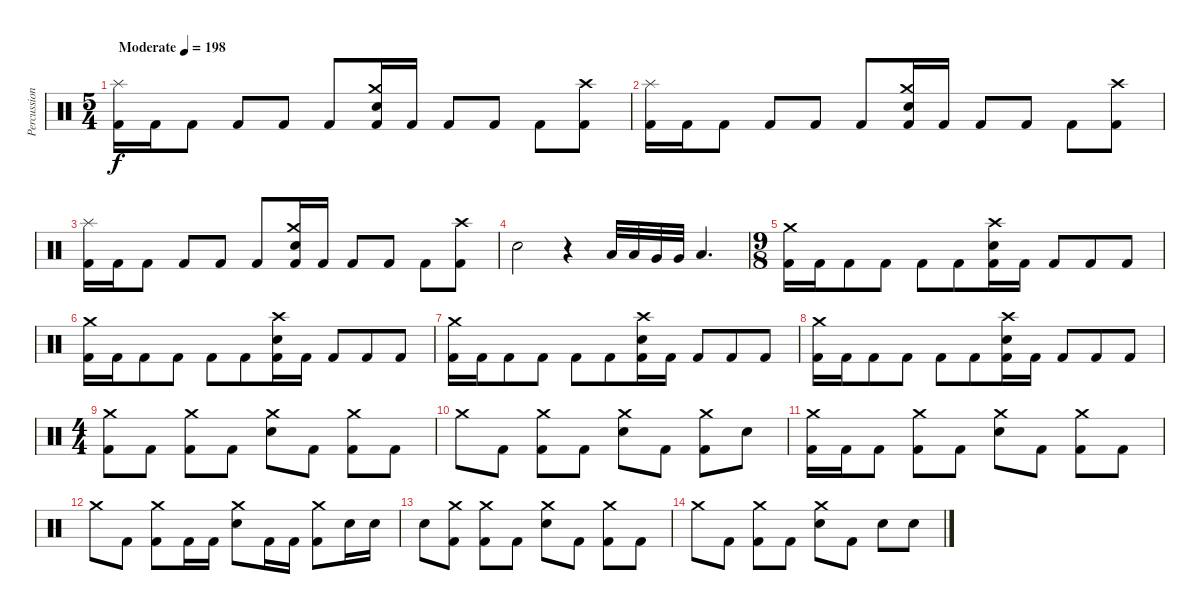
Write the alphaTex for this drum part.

\track ("Percussion" "Percussion") {instrument percussion}
\staff {score}
\articulation defaults
\ts (5 4)
\tempo (198 "Moderate")
\clef neutral
\ks c
("Splash (hit)" "Kick (hit) 2").16{dy f} "Kick (hit) 2".16 "Kick (hit) 2".8 "Kick (hit) 2".8 "Kick (hit) 2".8 "Kick (hit) 2".8 ("Crash medium (hit)" "Electric Snare (hit)" "Kick (hit) 2").16 "Kick (hit) 2".16 "Kick (hit) 2".8 "Kick (hit) 2".8 "Kick (hit) 2".8 ("Crash high (hit)" "Kick (hit) 2").8 |
("Splash (hit)" "Kick (hit) 2").16 "Kick (hit) 2".16 "Kick (hit) 2".8 "Kick (hit) 2".8 "Kick (hit) 2".8 "Kick (hit) 2".8 ("Crash medium (hit)" "Electric Snare (hit)" "Kick (hit) 2").16 "Kick (hit) 2".16 "Kick (hit) 2".8 "Kick (hit) 2".8 "Kick (hit) 2".8 ("Crash high (hit)" "Kick (hit) 2").8 |
("Splash (hit)" "Kick (hit) 2").16 "Kick (hit) 2".16 "Kick (hit) 2".8 "Kick (hit) 2".8 "Kick (hit) 2".8 "Kick (hit) 2".8 ("Crash medium (hit)" "Electric Snare (hit)" "Kick (hit) 2").16 "Kick (hit) 2".16 "Kick (hit) 2".8 "Kick (hit) 2".8 "Kick (hit) 2".8 ("Crash high (hit)" "Kick (hit) 2").8 |
"Electric Snare (hit)".2 r.4 "Low Tom (hit)".32 "Low Tom (hit)".32 "Very Low Tom (hit)".32 "Very Low Tom (hit)".32 "Low Floor Tom (hit)".4{d} |
\ts (9 8)
("Crash medium (hit)" "Kick (hit) 2").16 "Kick (hit) 2".16 "Kick (hit) 2".8 "Kick (hit) 2".8 "Kick (hit) 2".8 "Kick (hit) 2".8 ("Crash high (hit)" "Electric Snare (hit)" "Kick (hit) 2").16 "Kick (hit) 2".16 "Kick (hit) 2".8 "Kick (hit) 2".8 "Kick (hit) 2".8 |
("Crash medium (hit)" "Kick (hit) 2").16 "Kick (hit) 2".16 "Kick (hit) 2".8 "Kick (hit) 2".8 "Kick (hit) 2".8 "Kick (hit) 2".8 ("Crash high (hit)" "Electric Snare (hit)" "Kick (hit) 2").16 "Kick (hit) 2".16 "Kick (hit) 2".8 "Kick (hit) 2".8 "Kick (hit) 2".8 |
("Crash medium (hit)" "Kick (hit) 2").16 "Kick (hit) 2".16 "Kick (hit) 2".8 "Kick (hit) 2".8 "Kick (hit) 2".8 "Kick (hit) 2".8 ("Crash high (hit)" "Electric Snare (hit)" "Kick (hit) 2").16 "Kick (hit) 2".16 "Kick (hit) 2".8 "Kick (hit) 2".8 "Kick (hit) 2".8 |
("Crash medium (hit)" "Kick (hit) 2").16 "Kick (hit) 2".16 "Kick (hit) 2".8 "Kick (hit) 2".8 "Kick (hit) 2".8 "Kick (hit) 2".8 ("Crash high (hit)" "Electric Snare (hit)" "Kick (hit) 2").16 "Kick (hit) 2".16 "Kick (hit) 2".8 "Kick (hit) 2".8 "Kick (hit) 2".8 |
\ts (4 4)
("Crash medium (hit)" "Kick (hit) 2").8 "Kick (hit) 2".8 ("Crash medium (hit)" "Kick (hit) 2").8 "Kick (hit) 2".8 ("Crash medium (hit)" "Electric Snare (hit)").8 "Kick (hit) 2".8 ("Crash medium (hit)" "Kick (hit) 2").8 "Kick (hit) 2".8 |
"Crash medium (hit)".8 "Kick (hit) 2".8 ("Crash medium (hit)" "Kick (hit) 2").8 "Kick (hit) 2".8 ("Crash medium (hit)" "Electric Snare (hit)").8 "Kick (hit) 2".8 ("Crash medium (hit)" "Kick (hit) 2").8 "Electric Snare (hit)".8 |
("Crash medium (hit)" "Kick (hit) 2").16 "Kick (hit) 2".16 "Kick (hit) 2".8 ("Crash medium (hit)" "Kick (hit) 2").8 "Kick (hit) 2".8 ("Crash medium (hit)" "Electric Snare (hit)").8 "Kick (hit) 2".8 ("Crash medium (hit)" "Kick (hit) 2").8 "Kick (hit) 2".8 |
"Crash medium (hit)".8 "Kick (hit) 2".8 ("Crash medium (hit)" "Kick (hit) 2").8 "Kick (hit) 2".16 "Kick (hit) 2".16 ("Crash medium (hit)" "Electric Snare (hit)").8 "Kick (hit) 2".16 "Kick (hit) 2".16 ("Crash medium (hit)" "Kick (hit) 2").8 "Electric Snare (hit)".16 "Electric Snare (hit)".16 |
"Electric Snare (hit)".8 ("Crash medium (hit)" "Kick (hit) 2").8 ("Crash medium (hit)" "Kick (hit) 2").8 "Kick (hit) 2".8 ("Crash medium (hit)" "Electric Snare (hit)").8 "Kick (hit) 2".8 ("Crash medium (hit)" "Kick (hit) 2").8 "Kick (hit) 2".8 |
"Crash medium (hit)".8 "Kick (hit) 2".8 ("Crash medium (hit)" "Kick (hit) 2").8 "Kick (hit) 2".8 ("Crash medium (hit)" "Electric Snare (hit)").8 "Kick (hit) 2".8 "Electric Snare (hit)".8 "Electric Snare (hit)".8
